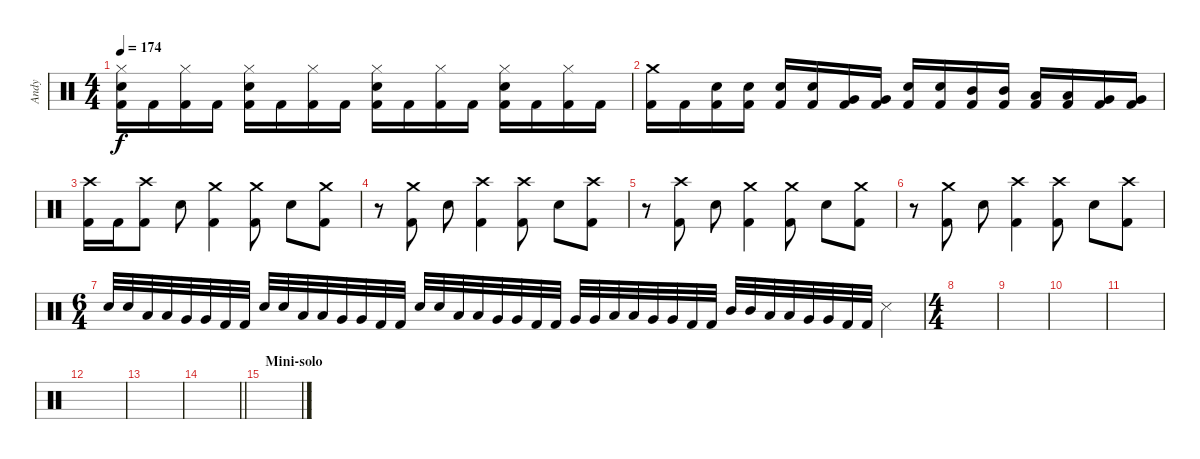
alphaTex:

\track ("Andy" "Andy") {instrument percussion}
\staff {score}
\articulation defaults
\ts (4 4)
\tempo 174
\clef neutral
\ks c
("Electric Snare (hit)" "Hi-Hat (closed)" "Kick (hit) 2").16{dy f} "Kick (hit) 2".16 ("Hi-Hat (closed)" "Kick (hit) 2").16 "Kick (hit) 2".16 ("Electric Snare (hit)" "Hi-Hat (closed)" "Kick (hit) 2").16 "Kick (hit) 2".16 ("Hi-Hat (closed)" "Kick (hit) 2").16 "Kick (hit) 2".16 ("Electric Snare (hit)" "Hi-Hat (closed)" "Kick (hit) 2").16 "Kick (hit) 2".16 ("Hi-Hat (closed)" "Kick (hit) 2").16 "Kick (hit) 2".16 ("Electric Snare (hit)" "Hi-Hat (closed)" "Kick (hit) 2").16 "Kick (hit) 2".16 ("Hi-Hat (closed)" "Kick (hit) 2").16 "Kick (hit) 2".16 |
("Crash medium (hit)" "Kick (hit) 2").16 "Kick (hit) 2".16 ("Electric Snare (hit)" "Kick (hit) 2").16 ("Electric Snare (hit)" "Kick (hit) 2").16 ("Electric Snare (hit)" "Kick (hit) 2").16 ("Electric Snare (hit)" "Kick (hit) 2").16 ("Very Low Tom (hit)" "Kick (hit) 2").16 ("Very Low Tom (hit)" "Kick (hit) 2").16 ("Electric Snare (hit)" "Kick (hit) 2").16 ("Electric Snare (hit)" "Kick (hit) 2").16 ("Mid Tom (hit)" "Kick (hit) 2").16 ("Mid Tom (hit)" "Kick (hit) 2").16 ("Low Tom (hit)" "Kick (hit) 2").16 ("Low Tom (hit)" "Kick (hit) 2").16 ("Very Low Tom (hit)" "Kick (hit) 2").16 ("Very Low Tom (hit)" "Kick (hit) 2").16 |
("Crash high (hit)" "Kick (hit) 2").16 "Kick (hit) 2".16 ("Crash high (hit)" "Kick (hit) 2").8 "Electric Snare (hit)".8 ("Crash medium (hit)" "Kick (hit) 2").4 ("Crash medium (hit)" "Kick (hit) 2").8 "Electric Snare (hit)".8 ("Crash medium (hit)" "Kick (hit) 2").8 |
r.8 ("Crash medium (hit)" "Kick (hit) 2").8 "Electric Snare (hit)".8 ("Crash high (hit)" "Kick (hit) 2").4 ("Crash high (hit)" "Kick (hit) 2").8 "Electric Snare (hit)".8 ("Crash high (hit)" "Kick (hit) 2").8 |
r.8 ("Crash high (hit)" "Kick (hit) 2").8 "Electric Snare (hit)".8 ("Crash medium (hit)" "Kick (hit) 2").4 ("Crash medium (hit)" "Kick (hit) 2").8 "Electric Snare (hit)".8 ("Crash medium (hit)" "Kick (hit) 2").8 |
r.8 ("Crash medium (hit)" "Kick (hit) 2").8 "Electric Snare (hit)".8 ("Crash high (hit)" "Kick (hit) 2").4 ("Crash high (hit)" "Kick (hit) 2").8 "Electric Snare (hit)".8 ("Crash high (hit)" "Kick (hit) 2").8 |
\ts (6 4)
"Electric Snare (hit)".32 "Electric Snare (hit)".32 "Low Tom (hit)".32 "Low Tom (hit)".32 "Very Low Tom (hit)".32 "Very Low Tom (hit)".32 "Kick (hit) 2".32 "Kick (hit) 2".32 "Electric Snare (hit)".32 "Electric Snare (hit)".32 "Low Tom (hit)".32 "Low Tom (hit)".32 "Very Low Tom (hit)".32 "Very Low Tom (hit)".32 "Kick (hit) 2".32 "Kick (hit) 2".32 "Electric Snare (hit)".32 "Electric Snare (hit)".32 "Low Tom (hit)".32 "Low Tom (hit)".32 "Very Low Tom (hit)".32 "Very Low Tom (hit)".32 "Kick (hit) 2".32 "Kick (hit) 2".32 "Very Low Tom (hit)".32 "Very Low Tom (hit)".32 "Low Tom (hit)".32 "Low Tom (hit)".32 "Very Low Tom (hit)".32 "Very Low Tom (hit)".32 "Kick (hit) 2".32 "Kick (hit) 2".32 "Mid Tom (hit)".32 "Mid Tom (hit)".32 "Low Tom (hit)".32 "Low Tom (hit)".32 "Very Low Tom (hit)".32 "Very Low Tom (hit)".32 "Kick (hit) 2".32 "Kick (hit) 2".32 "Snare (side stick) 3".4 |
\ts (4 4)
|
|
|
|
|
|
\barLineRight lightlight
|
\section ("" "Mini-solo")
